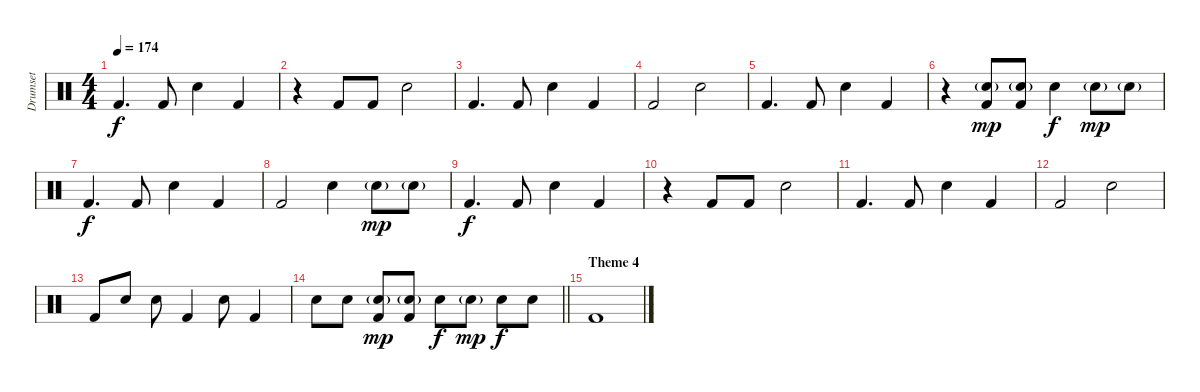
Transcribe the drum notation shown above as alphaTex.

\track ("Drumset" "Drumset") {instrument percussion}
\staff {score}
\articulation defaults
\ts (4 4)
\tempo 174
\clef neutral
\ks c "Kick (hit) 2".4{d dy f} "Kick (hit) 2".8 "Snare (hit) 2".4 "Kick (hit) 2".4
|
r.4 "Kick (hit) 2".8 "Kick (hit) 2".8 "Snare (hit) 2".2 |
"Kick (hit) 2".4{d} "Kick (hit) 2".8 "Snare (hit) 2".4 "Kick (hit) 2".4 |
"Kick (hit) 2".2 "Snare (hit) 2".2 |
"Kick (hit) 2".4{d} "Kick (hit) 2".8 "Snare (hit) 2".4 "Kick (hit) 2".4 |
r.4 ("Snare (hit) 2"{g} "Kick (hit) 2").8{dy mp} ("Snare (hit) 2"{g} "Kick (hit) 2").8 "Snare (hit) 2".4{dy f} "Snare (hit) 2"{g}.8{dy mp} "Snare (hit) 2"{g}.8 |
"Kick (hit) 2".4{d dy f} "Kick (hit) 2".8 "Snare (hit) 2".4 "Kick (hit) 2".4 |
"Kick (hit) 2".2 "Snare (hit) 2".4 "Snare (hit) 2"{g}.8{dy mp} "Snare (hit) 2"{g}.8 |
"Kick (hit) 2".4{d dy f} "Kick (hit) 2".8 "Snare (hit) 2".4 "Kick (hit) 2".4 |
r.4 "Kick (hit) 2".8 "Kick (hit) 2".8 "Snare (hit) 2".2 |
"Kick (hit) 2".4{d} "Kick (hit) 2".8 "Snare (hit) 2".4 "Kick (hit) 2".4 |
"Kick (hit) 2".2 "Snare (hit) 2".2 |
"Kick (hit) 2".8 "Snare (hit) 2".8 "Snare (hit) 2".8 "Kick (hit) 2".4 "Snare (hit) 2".8 "Kick (hit) 2".4 |
\barLineRight lightlight "Snare (hit) 2".8 "Snare (hit) 2".8
("Snare (hit) 2"{g} "Kick (hit) 2").8{dy mp} ("Snare (hit) 2"{g} "Kick (hit) 2").8 "Snare (hit) 2".8{dy f} "Snare (hit) 2"{g}.8{dy mp} "Snare (hit) 2".8{dy f} "Snare (hit) 2".8 |
\section ("" "Theme 4")
"Kick (hit) 2".1
